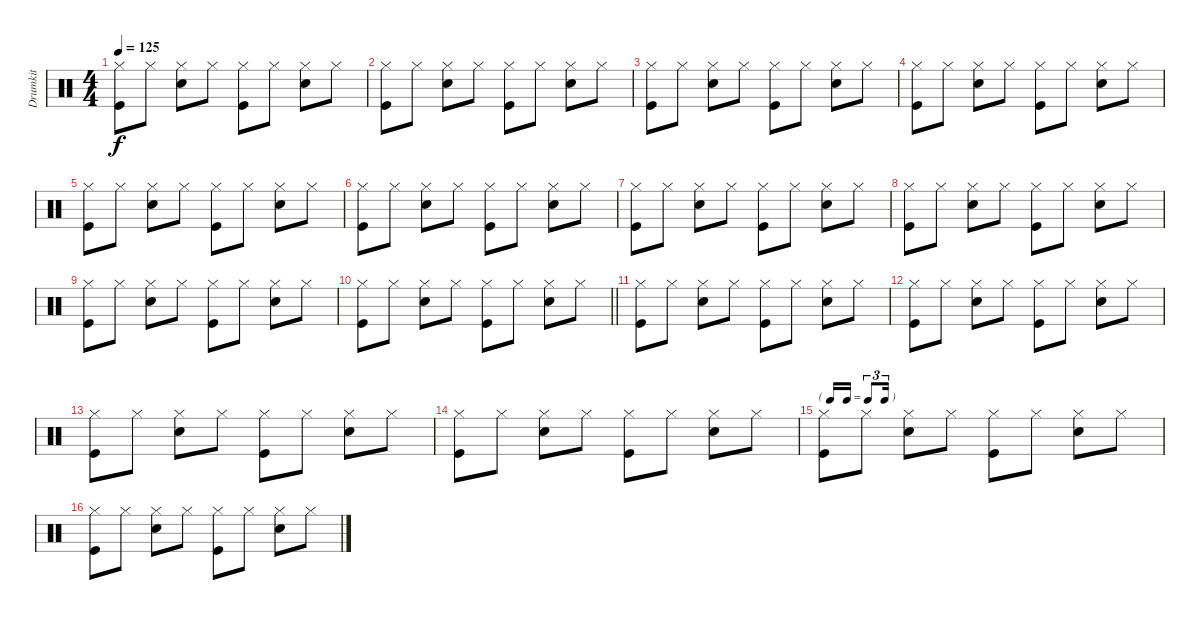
\track ("Drumkit" "Drumkit") {instrument percussion}
\staff {score}
\articulation defaults
\ts (4 4)
\tempo 125
\clef neutral
\ks c
("Kick (hit)" "Hi-Hat (closed)").8{dy f} "Hi-Hat (closed)".8 ("Snare (hit) 2" "Hi-Hat (closed)").8 "Hi-Hat (closed)".8 ("Kick (hit)" "Hi-Hat (closed)").8 "Hi-Hat (closed)".8 ("Snare (hit) 2" "Hi-Hat (closed)").8 "Hi-Hat (closed)".8 |
("Kick (hit)" "Hi-Hat (closed)").8 "Hi-Hat (closed)".8 ("Snare (hit) 2" "Hi-Hat (closed)").8 "Hi-Hat (closed)".8 ("Kick (hit)" "Hi-Hat (closed)").8 "Hi-Hat (closed)".8 ("Snare (hit) 2" "Hi-Hat (closed)").8 "Hi-Hat (closed)".8 |
("Kick (hit)" "Hi-Hat (closed)").8 "Hi-Hat (closed)".8 ("Snare (hit) 2" "Hi-Hat (closed)").8 "Hi-Hat (closed)".8 ("Kick (hit)" "Hi-Hat (closed)").8 "Hi-Hat (closed)".8 ("Snare (hit) 2" "Hi-Hat (closed)").8 "Hi-Hat (closed)".8 |
("Kick (hit)" "Hi-Hat (closed)").8 "Hi-Hat (closed)".8 ("Snare (hit) 2" "Hi-Hat (closed)").8 "Hi-Hat (closed)".8 ("Kick (hit)" "Hi-Hat (closed)").8 "Hi-Hat (closed)".8 ("Snare (hit) 2" "Hi-Hat (closed)").8 "Hi-Hat (closed)".8 |
("Kick (hit)" "Hi-Hat (closed)").8 "Hi-Hat (closed)".8 ("Snare (hit) 2" "Hi-Hat (closed)").8 "Hi-Hat (closed)".8 ("Kick (hit)" "Hi-Hat (closed)").8 "Hi-Hat (closed)".8 ("Snare (hit) 2" "Hi-Hat (closed)").8 "Hi-Hat (closed)".8 |
("Kick (hit)" "Hi-Hat (closed)").8 "Hi-Hat (closed)".8 ("Snare (hit) 2" "Hi-Hat (closed)").8 "Hi-Hat (closed)".8 ("Kick (hit)" "Hi-Hat (closed)").8 "Hi-Hat (closed)".8 ("Snare (hit) 2" "Hi-Hat (closed)").8 "Hi-Hat (closed)".8 |
("Kick (hit)" "Hi-Hat (closed)").8 "Hi-Hat (closed)".8 ("Snare (hit) 2" "Hi-Hat (closed)").8 "Hi-Hat (closed)".8 ("Kick (hit)" "Hi-Hat (closed)").8 "Hi-Hat (closed)".8 ("Snare (hit) 2" "Hi-Hat (closed)").8 "Hi-Hat (closed)".8 |
("Kick (hit)" "Hi-Hat (closed)").8 "Hi-Hat (closed)".8 ("Snare (hit) 2" "Hi-Hat (closed)").8 "Hi-Hat (closed)".8 ("Kick (hit)" "Hi-Hat (closed)").8 "Hi-Hat (closed)".8 ("Snare (hit) 2" "Hi-Hat (closed)").8 "Hi-Hat (closed)".8 |
("Kick (hit)" "Hi-Hat (closed)").8 "Hi-Hat (closed)".8 ("Snare (hit) 2" "Hi-Hat (closed)").8 "Hi-Hat (closed)".8 ("Kick (hit)" "Hi-Hat (closed)").8 "Hi-Hat (closed)".8 ("Snare (hit) 2" "Hi-Hat (closed)").8 "Hi-Hat (closed)".8 |
\barLineRight lightlight
("Kick (hit)" "Hi-Hat (closed)").8 "Hi-Hat (closed)".8 ("Snare (hit) 2" "Hi-Hat (closed)").8 "Hi-Hat (closed)".8 ("Kick (hit)" "Hi-Hat (closed)").8 "Hi-Hat (closed)".8 ("Snare (hit) 2" "Hi-Hat (closed)").8 "Hi-Hat (closed)".8 |
("Kick (hit)" "Hi-Hat (closed)").8 "Hi-Hat (closed)".8 ("Snare (hit) 2" "Hi-Hat (closed)").8 "Hi-Hat (closed)".8 ("Kick (hit)" "Hi-Hat (closed)").8 "Hi-Hat (closed)".8 ("Snare (hit) 2" "Hi-Hat (closed)").8 "Hi-Hat (closed)".8 |
("Kick (hit)" "Hi-Hat (closed)").8 "Hi-Hat (closed)".8 ("Snare (hit) 2" "Hi-Hat (closed)").8 "Hi-Hat (closed)".8 ("Kick (hit)" "Hi-Hat (closed)").8 "Hi-Hat (closed)".8 ("Snare (hit) 2" "Hi-Hat (closed)").8 "Hi-Hat (closed)".8 |
("Kick (hit)" "Hi-Hat (closed)").8 "Hi-Hat (closed)".8 ("Snare (hit) 2" "Hi-Hat (closed)").8 "Hi-Hat (closed)".8 ("Kick (hit)" "Hi-Hat (closed)").8 "Hi-Hat (closed)".8 ("Snare (hit) 2" "Hi-Hat (closed)").8 "Hi-Hat (closed)".8 |
("Kick (hit)" "Hi-Hat (closed)").8 "Hi-Hat (closed)".8 ("Snare (hit) 2" "Hi-Hat (closed)").8 "Hi-Hat (closed)".8 ("Kick (hit)" "Hi-Hat (closed)").8 "Hi-Hat (closed)".8 ("Snare (hit) 2" "Hi-Hat (closed)").8 "Hi-Hat (closed)".8 |
\tf triplet16th
("Kick (hit)" "Hi-Hat (closed)").8 "Hi-Hat (closed)".8 ("Snare (hit) 2" "Hi-Hat (closed)").8 "Hi-Hat (closed)".8 ("Kick (hit)" "Hi-Hat (closed)").8 "Hi-Hat (closed)".8 ("Snare (hit) 2" "Hi-Hat (closed)").8 "Hi-Hat (closed)".8 |
("Kick (hit)" "Hi-Hat (closed)").8 "Hi-Hat (closed)".8 ("Snare (hit) 2" "Hi-Hat (closed)").8 "Hi-Hat (closed)".8 ("Kick (hit)" "Hi-Hat (closed)").8 "Hi-Hat (closed)".8 ("Snare (hit) 2" "Hi-Hat (closed)").8 "Hi-Hat (closed)".8
